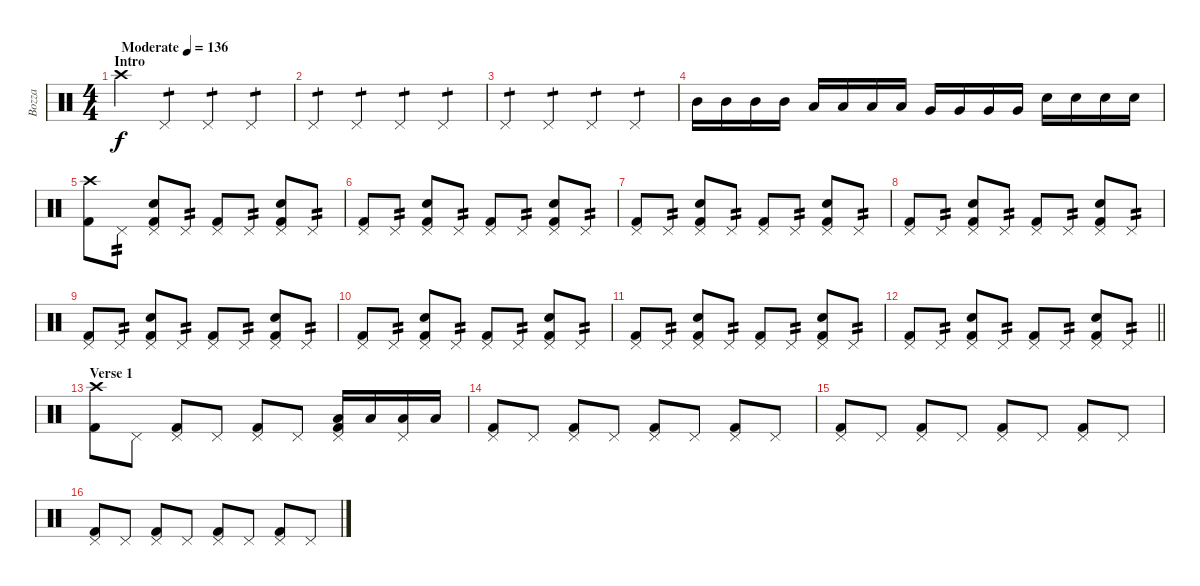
\track ("Bozza" "Bozza") {instrument percussion}
\staff {score}
\articulation defaults
\ts (4 4)
\section ("" "Intro")
\tempo (136 "Moderate")
\clef neutral
\ks c "Crash high (hit)".4{dy f} "Pedal Hi-Hat (hit)".4{tp 1} "Pedal Hi-Hat (hit)".4{tp 1} "Pedal Hi-Hat (hit)".4{tp 1}
|
"Pedal Hi-Hat (hit)".4{tp 1} "Pedal Hi-Hat (hit)".4{tp 1} "Pedal Hi-Hat (hit)".4{tp 1} "Pedal Hi-Hat (hit)".4{tp 1} |
"Pedal Hi-Hat (hit)".4{tp 1} "Pedal Hi-Hat (hit)".4{tp 1} "Pedal Hi-Hat (hit)".4{tp 1} "Pedal Hi-Hat (hit)".4{tp 1} |
"Mid Tom (hit)".16 "Mid Tom (hit)".16 "Mid Tom (hit)".16 "Mid Tom (hit)".16 "Low Tom (hit)".16 "Low Tom (hit)".16 "Low Tom (hit)".16 "Low Tom (hit)".16 "Very Low Tom (hit)".16 "Very Low Tom (hit)".16 "Very Low Tom (hit)".16 "Very Low Tom (hit)".16 "Snare (hit) 2".16 "Snare (hit) 2".16 "Snare (hit) 2".16 "Snare (hit) 2".16 |
("Crash high (hit)" "Kick (hit) 2").8 "Pedal Hi-Hat (hit)".8{tp 2} ("Pedal Hi-Hat (hit)" "Snare (hit) 2" "Kick (hit) 2").8 "Pedal Hi-Hat (hit)".8{tp 2} ("Pedal Hi-Hat (hit)" "Kick (hit) 2").8 "Pedal Hi-Hat (hit)".8{tp 2} ("Pedal Hi-Hat (hit)" "Snare (hit) 2" "Kick (hit) 2").8 "Pedal Hi-Hat (hit)".8{tp 2} |
("Pedal Hi-Hat (hit)" "Kick (hit) 2").8 "Pedal Hi-Hat (hit)".8{tp 2} ("Pedal Hi-Hat (hit)" "Snare (hit) 2" "Kick (hit) 2").8 "Pedal Hi-Hat (hit)".8{tp 2} ("Pedal Hi-Hat (hit)" "Kick (hit) 2").8 "Pedal Hi-Hat (hit)".8{tp 2} ("Pedal Hi-Hat (hit)" "Snare (hit) 2" "Kick (hit) 2").8 "Pedal Hi-Hat (hit)".8{tp 2} |
("Pedal Hi-Hat (hit)" "Kick (hit) 2").8 "Pedal Hi-Hat (hit)".8{tp 2} ("Pedal Hi-Hat (hit)" "Snare (hit) 2" "Kick (hit) 2").8 "Pedal Hi-Hat (hit)".8{tp 2} ("Pedal Hi-Hat (hit)" "Kick (hit) 2").8 "Pedal Hi-Hat (hit)".8{tp 2} ("Pedal Hi-Hat (hit)" "Snare (hit) 2" "Kick (hit) 2").8 "Pedal Hi-Hat (hit)".8{tp 2} |
("Pedal Hi-Hat (hit)" "Kick (hit) 2").8 "Pedal Hi-Hat (hit)".8{tp 2} ("Pedal Hi-Hat (hit)" "Snare (hit) 2" "Kick (hit) 2").8 "Pedal Hi-Hat (hit)".8{tp 2} ("Pedal Hi-Hat (hit)" "Kick (hit) 2").8 "Pedal Hi-Hat (hit)".8{tp 2} ("Pedal Hi-Hat (hit)" "Snare (hit) 2" "Kick (hit) 2").8 "Pedal Hi-Hat (hit)".8{tp 2} |
("Pedal Hi-Hat (hit)" "Kick (hit) 2").8 "Pedal Hi-Hat (hit)".8{tp 2} ("Pedal Hi-Hat (hit)" "Snare (hit) 2" "Kick (hit) 2").8 "Pedal Hi-Hat (hit)".8{tp 2} ("Pedal Hi-Hat (hit)" "Kick (hit) 2").8 "Pedal Hi-Hat (hit)".8{tp 2} ("Pedal Hi-Hat (hit)" "Snare (hit) 2" "Kick (hit) 2").8 "Pedal Hi-Hat (hit)".8{tp 2} |
("Pedal Hi-Hat (hit)" "Kick (hit) 2").8 "Pedal Hi-Hat (hit)".8{tp 2} ("Pedal Hi-Hat (hit)" "Snare (hit) 2" "Kick (hit) 2").8 "Pedal Hi-Hat (hit)".8{tp 2} ("Pedal Hi-Hat (hit)" "Kick (hit) 2").8 "Pedal Hi-Hat (hit)".8{tp 2} ("Pedal Hi-Hat (hit)" "Snare (hit) 2" "Kick (hit) 2").8 "Pedal Hi-Hat (hit)".8{tp 2} |
("Pedal Hi-Hat (hit)" "Kick (hit) 2").8 "Pedal Hi-Hat (hit)".8{tp 2} ("Pedal Hi-Hat (hit)" "Snare (hit) 2" "Kick (hit) 2").8 "Pedal Hi-Hat (hit)".8{tp 2} ("Pedal Hi-Hat (hit)" "Kick (hit) 2").8 "Pedal Hi-Hat (hit)".8{tp 2} ("Pedal Hi-Hat (hit)" "Snare (hit) 2" "Kick (hit) 2").8 "Pedal Hi-Hat (hit)".8{tp 2} |
\barLineRight lightlight
("Pedal Hi-Hat (hit)" "Kick (hit) 2").8 "Pedal Hi-Hat (hit)".8{tp 2} ("Pedal Hi-Hat (hit)" "Snare (hit) 2" "Kick (hit) 2").8 "Pedal Hi-Hat (hit)".8{tp 2} ("Pedal Hi-Hat (hit)" "Kick (hit) 2").8 "Pedal Hi-Hat (hit)".8{tp 2} ("Pedal Hi-Hat (hit)" "Snare (hit) 2" "Kick (hit) 2").8 "Pedal Hi-Hat (hit)".8{tp 2} |
\section ("" "Verse 1")
("Crash high (hit)" "Kick (hit) 2").8 "Pedal Hi-Hat (hit)".8 ("Pedal Hi-Hat (hit)" "Kick (hit) 2").8 "Pedal Hi-Hat (hit)".8 ("Pedal Hi-Hat (hit)" "Kick (hit) 2").8 "Pedal Hi-Hat (hit)".8 ("Pedal Hi-Hat (hit)" "Low Floor Tom (hit)" "Kick (hit) 2").16 "Low Floor Tom (hit)".16 ("Pedal Hi-Hat (hit)" "Low Floor Tom (hit)").16 "Low Floor Tom (hit)".16 |
("Pedal Hi-Hat (hit)" "Kick (hit) 2").8 "Pedal Hi-Hat (hit)".8 ("Pedal Hi-Hat (hit)" "Kick (hit) 2").8 "Pedal Hi-Hat (hit)".8 ("Pedal Hi-Hat (hit)" "Kick (hit) 2").8 "Pedal Hi-Hat (hit)".8 ("Pedal Hi-Hat (hit)" "Kick (hit) 2").8 "Pedal Hi-Hat (hit)".8 |
("Pedal Hi-Hat (hit)" "Kick (hit) 2").8 "Pedal Hi-Hat (hit)".8 ("Pedal Hi-Hat (hit)" "Kick (hit) 2").8 "Pedal Hi-Hat (hit)".8 ("Pedal Hi-Hat (hit)" "Kick (hit) 2").8 "Pedal Hi-Hat (hit)".8 ("Pedal Hi-Hat (hit)" "Kick (hit) 2").8 "Pedal Hi-Hat (hit)".8 |
("Pedal Hi-Hat (hit)" "Kick (hit) 2").8 "Pedal Hi-Hat (hit)".8 ("Pedal Hi-Hat (hit)" "Kick (hit) 2").8 "Pedal Hi-Hat (hit)".8 ("Pedal Hi-Hat (hit)" "Kick (hit) 2").8 "Pedal Hi-Hat (hit)".8 ("Pedal Hi-Hat (hit)" "Kick (hit) 2").8 "Pedal Hi-Hat (hit)".8
